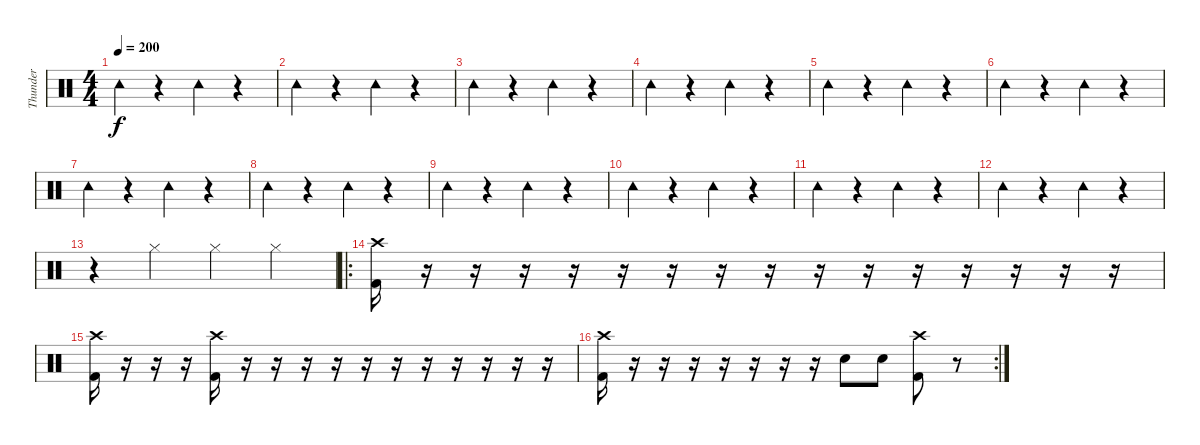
\track ("Thunder" "Thunder") {instrument percussion}
\staff {score}
\articulation defaults
\ts (4 4)
\tempo 200
\clef neutral
\ks c "Tambourine (hit)".4{dy f}
r.4 "Tambourine (hit)".4 r.4 |
"Tambourine (hit)".4 r.4 "Tambourine (hit)".4 r.4 |
"Tambourine (hit)".4 r.4 "Tambourine (hit)".4 r.4 |
"Tambourine (hit)".4 r.4 "Tambourine (hit)".4 r.4 |
"Tambourine (hit)".4 r.4 "Tambourine (hit)".4 r.4 |
"Tambourine (hit)".4 r.4 "Tambourine (hit)".4 r.4 |
"Tambourine (hit)".4 r.4 "Tambourine (hit)".4 r.4 |
"Tambourine (hit)".4 r.4 "Tambourine (hit)".4 r.4 |
"Tambourine (hit)".4 r.4 "Tambourine (hit)".4 r.4 |
"Tambourine (hit)".4 r.4 "Tambourine (hit)".4 r.4 |
"Tambourine (hit)".4 r.4 "Tambourine (hit)".4 r.4 |
"Tambourine (hit)".4 r.4 "Tambourine (hit)".4 r.4 |
r.4 "Hi-Hat (closed)".4 "Hi-Hat (closed)".4 "Hi-Hat (closed)".4 |
\ro
("Kick (hit) 2" "Crash high (hit)").16 r.16 r.16 r.16 r.16 r.16 r.16 r.16 r.16 r.16 r.16 r.16 r.16 r.16 r.16 r.16 |
("Kick (hit) 2" "Crash high (hit)").16 r.16 r.16 r.16 ("Kick (hit) 2" "Crash high (hit)").16 r.16 r.16 r.16 r.16 r.16 r.16 r.16 r.16 r.16 r.16 r.16 |
\rc 2
("Kick (hit) 2" "Crash high (hit)").16 r.16 r.16 r.16 r.16 r.16 r.16 r.16 "Snare (hit) 2".8 "Snare (hit) 2".8 ("Kick (hit) 2" "Crash high (hit)").8 r.8
